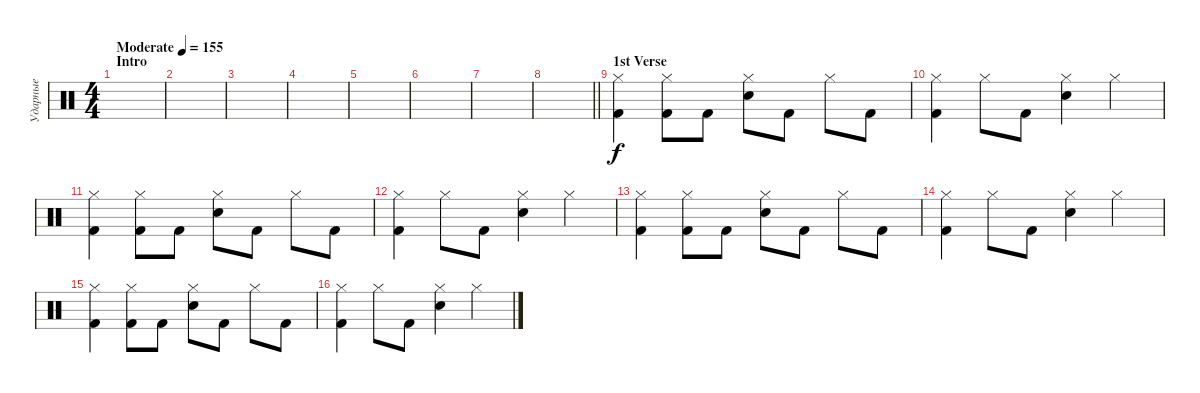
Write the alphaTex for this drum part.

\track ("Ударные" "Ударные") {instrument percussion}
\staff {score}
\articulation defaults
\ts (4 4)
\section ("" "Intro")
\tempo (155 "Moderate")
\clef neutral
\ks c
|
|
|
|
|
|
|
\barLineRight lightlight
|
\section ("" "1st Verse")
("Hi-Hat (closed)" "Kick (hit) 2").4 ("Hi-Hat (closed)" "Kick (hit) 2").8 "Kick (hit) 2".8 ("Hi-Hat (closed)" "Electric Snare (hit)").8 "Kick (hit) 2".8 "Hi-Hat (closed)".8 "Kick (hit) 2".8 |
("Hi-Hat (closed)" "Kick (hit) 2").4 "Hi-Hat (closed)".8 "Kick (hit) 2".8 ("Hi-Hat (closed)" "Electric Snare (hit)").4 "Hi-Hat (closed)".4 |
("Hi-Hat (closed)" "Kick (hit) 2").4 ("Hi-Hat (closed)" "Kick (hit) 2").8 "Kick (hit) 2".8 ("Hi-Hat (closed)" "Electric Snare (hit)").8 "Kick (hit) 2".8 "Hi-Hat (closed)".8 "Kick (hit) 2".8 |
("Hi-Hat (closed)" "Kick (hit) 2").4 "Hi-Hat (closed)".8 "Kick (hit) 2".8 ("Hi-Hat (closed)" "Electric Snare (hit)").4 "Hi-Hat (closed)".4 |
("Hi-Hat (closed)" "Kick (hit) 2").4 ("Hi-Hat (closed)" "Kick (hit) 2").8 "Kick (hit) 2".8 ("Hi-Hat (closed)" "Electric Snare (hit)").8 "Kick (hit) 2".8 "Hi-Hat (closed)".8 "Kick (hit) 2".8 |
("Hi-Hat (closed)" "Kick (hit) 2").4 "Hi-Hat (closed)".8 "Kick (hit) 2".8 ("Hi-Hat (closed)" "Electric Snare (hit)").4 "Hi-Hat (closed)".4 |
("Hi-Hat (closed)" "Kick (hit) 2").4 ("Hi-Hat (closed)" "Kick (hit) 2").8 "Kick (hit) 2".8 ("Hi-Hat (closed)" "Electric Snare (hit)").8 "Kick (hit) 2".8 "Hi-Hat (closed)".8 "Kick (hit) 2".8 |
("Hi-Hat (closed)" "Kick (hit) 2").4 "Hi-Hat (closed)".8 "Kick (hit) 2".8 ("Hi-Hat (closed)" "Electric Snare (hit)").4 "Hi-Hat (closed)".4
